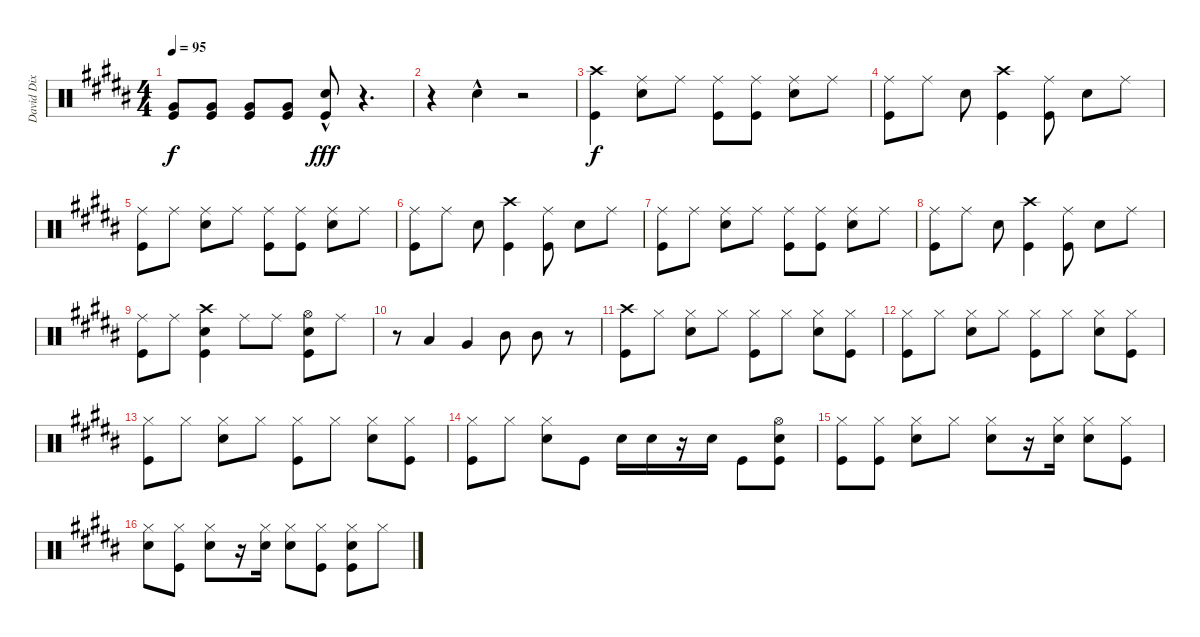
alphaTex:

\track ("David Dix Drums" "David Dix ") {instrument percussion}
\staff {score}
\articulation defaults
\ts (4 4)
\tempo 95
\clef neutral
\ks g#minor
("Very Low Tom (hit)" "Kick (hit)").8{dy f} ("Very Low Tom (hit)" "Kick (hit)").8 ("Very Low Tom (hit)" "Kick (hit)").8 ("Very Low Tom (hit)" "Kick (hit)").8 ("Snare (hit) 2"{hac} "Kick (hit)").8{dy fff} r.4{d} |
r.4 "Snare (hit) 2"{hac}.4 r.2 |
("Crash high (hit)" "Kick (hit)").4{dy f} ("Ride (middle)" "Snare (hit) 2").8 "Ride (middle)".8 ("Ride (middle)" "Kick (hit)").8 ("Ride (middle)" "Kick (hit)").8 ("Ride (middle)" "Snare (hit) 2").8 "Ride (middle)".8 |
("Ride (middle)" "Kick (hit)").8 "Ride (middle)".8 "Snare (hit) 2".8 ("Crash high (hit)" "Kick (hit)").4 ("Ride (middle)" "Kick (hit)").8 "Snare (hit) 2".8 "Ride (middle)".8 |
("Ride (middle)" "Kick (hit)").8 "Ride (middle)".8 ("Ride (middle)" "Snare (hit) 2").8 "Ride (middle)".8 ("Ride (middle)" "Kick (hit)").8 ("Ride (middle)" "Kick (hit)").8 ("Ride (middle)" "Snare (hit) 2").8 "Ride (middle)".8 |
("Ride (middle)" "Kick (hit)").8 "Ride (middle)".8 "Snare (hit) 2".8 ("Crash high (hit)" "Kick (hit)").4 ("Ride (middle)" "Kick (hit)").8 "Snare (hit) 2".8 "Ride (middle)".8 |
("Ride (middle)" "Kick (hit)").8 "Ride (middle)".8 ("Ride (middle)" "Snare (hit) 2").8 "Ride (middle)".8 ("Ride (middle)" "Kick (hit)").8 ("Ride (middle)" "Kick (hit)").8 ("Ride (middle)" "Snare (hit) 2").8 "Ride (middle)".8 |
("Ride (middle)" "Kick (hit)").8 "Ride (middle)".8 "Snare (hit) 2".8 ("Crash high (hit)" "Kick (hit)").4 ("Ride (middle)" "Kick (hit)").8 "Snare (hit) 2".8 "Ride (middle)".8 |
("Ride (middle)" "Kick (hit)").8 "Ride (middle)".8 ("Crash high (hit)" "Snare (hit) 2" "Kick (hit)").4 "Ride (middle)".8 "Ride (middle)".8 ("Hi-Hat (open)" "Snare (hit) 2" "Kick (hit)").8 "Ride (middle)".8 |
r.8 "Low Tom (hit)".4 "Very Low Tom (hit)".4 "Mid Tom (hit)".8 "Mid Tom (hit)".8 r.8 |
("Crash high (hit)" "Kick (hit)").8{volume 10} "Hi-Hat (closed)".8{volume 8} ("Hi-Hat (closed)" "Snare (hit) 2").8 "Hi-Hat (closed)".8 ("Hi-Hat (closed)" "Kick (hit)").8 "Hi-Hat (closed)".8 ("Hi-Hat (closed)" "Snare (hit) 2").8 ("Hi-Hat (closed)" "Kick (hit)").8 |
("Hi-Hat (closed)" "Kick (hit)").8 "Hi-Hat (closed)".8 ("Hi-Hat (closed)" "Snare (hit) 2").8 "Hi-Hat (closed)".8 ("Hi-Hat (closed)" "Kick (hit)").8 "Hi-Hat (closed)".8 ("Hi-Hat (closed)" "Snare (hit) 2").8 ("Hi-Hat (closed)" "Kick (hit)").8 |
("Hi-Hat (closed)" "Kick (hit)").8 "Hi-Hat (closed)".8 ("Hi-Hat (closed)" "Snare (hit) 2").8 "Hi-Hat (closed)".8 ("Hi-Hat (closed)" "Kick (hit)").8 "Hi-Hat (closed)".8 ("Hi-Hat (closed)" "Snare (hit) 2").8 ("Hi-Hat (closed)" "Kick (hit)").8 |
("Hi-Hat (closed)" "Kick (hit)").8 "Hi-Hat (closed)".8 ("Hi-Hat (closed)" "Snare (hit) 2").8 "Kick (hit)".8 "Snare (hit) 2".16 "Snare (hit) 2".16 r.16 "Snare (hit) 2".16 "Kick (hit)".8 ("Hi-Hat (open)" "Snare (hit) 2" "Kick (hit)").8 |
("Hi-Hat (closed)" "Kick (hit)").8 ("Hi-Hat (closed)" "Kick (hit)").8 ("Hi-Hat (closed)" "Snare (hit) 2").8 "Hi-Hat (closed)".8 ("Hi-Hat (closed)" "Snare (hit) 2").8 r.16 ("Hi-Hat (closed)" "Snare (hit) 2").16 ("Hi-Hat (closed)" "Snare (hit) 2").8 ("Hi-Hat (closed)" "Kick (hit)").8 |
("Hi-Hat (closed)" "Snare (hit) 2").8 ("Hi-Hat (closed)" "Kick (hit)").8 ("Hi-Hat (closed)" "Snare (hit) 2").8 r.16 ("Hi-Hat (closed)" "Snare (hit) 2").16 ("Hi-Hat (closed)" "Snare (hit) 2").8 ("Hi-Hat (closed)" "Kick (hit)").8 ("Hi-Hat (closed)" "Snare (hit) 2" "Kick (hit)").8 "Hi-Hat (closed)".8
